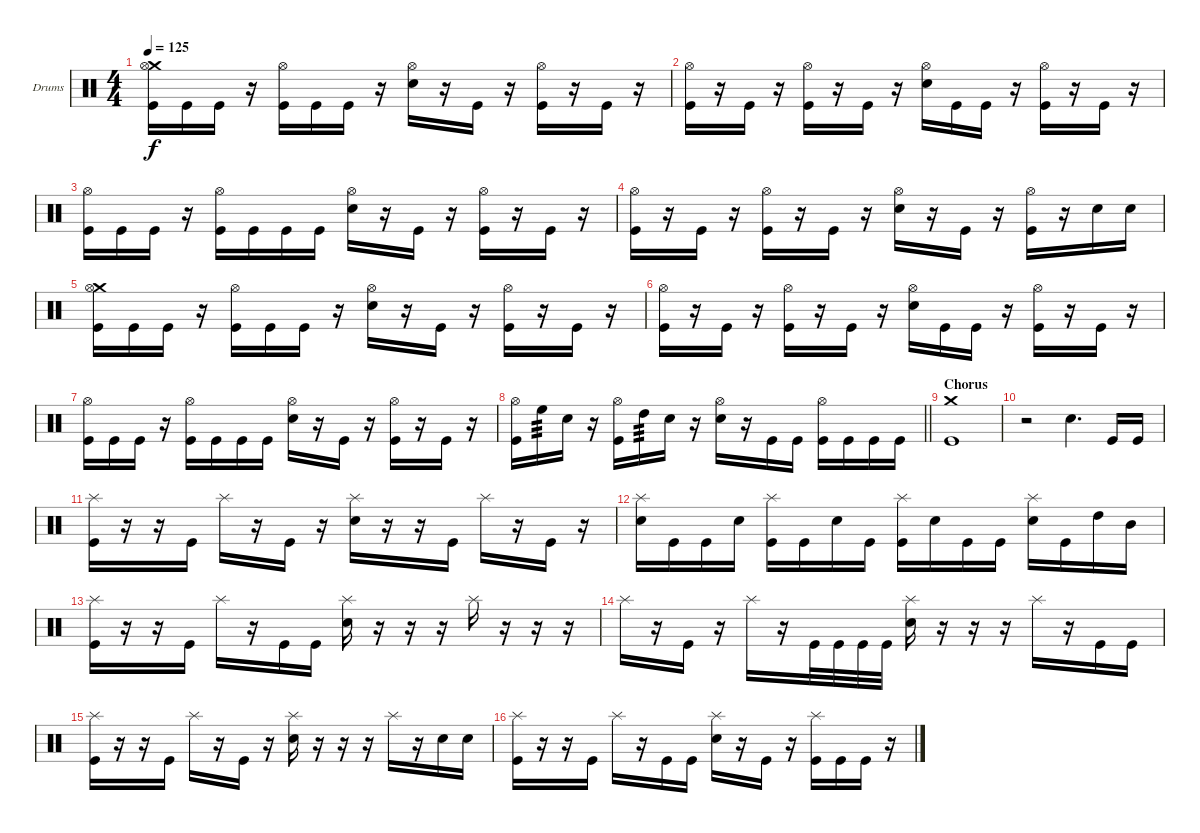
\bracketExtendMode groupsimilarinstruments
\firstSystemTrackNameOrientation horizontal
\otherSystemsTrackNameOrientation horizontal
\track ("Drumkit" "Drums") {instrument percussion}
\staff {score}
\articulation defaults
\ts (4 4)
\tempo 125
\clef neutral
\ks c
("Crash medium (hit)" "Kick (hit)" "Hi-Hat (open)").16{dy f} "Kick (hit)".16 "Kick (hit)".16 r.16 ("Kick (hit)" "Hi-Hat (open)").16 "Kick (hit)".16 "Kick (hit)".16 r.16 ("Snare (hit) 2" "Hi-Hat (open)").16 r.16 "Kick (hit)".16 r.16 ("Kick (hit)" "Hi-Hat (open)").16 r.16 "Kick (hit)".16 r.16 |
("Kick (hit)" "Hi-Hat (open)").16 r.16 "Kick (hit)".16 r.16 ("Kick (hit)" "Hi-Hat (open)").16 r.16 "Kick (hit)".16 r.16 ("Snare (hit) 2" "Hi-Hat (open)").16 "Kick (hit)".16 "Kick (hit)".16 r.16 ("Kick (hit)" "Hi-Hat (open)").16 r.16 "Kick (hit)".16 r.16 |
("Kick (hit)" "Hi-Hat (open)").16 "Kick (hit)".16 "Kick (hit)".16 r.16 ("Kick (hit)" "Hi-Hat (open)").16 "Kick (hit)".16 "Kick (hit)".16 "Kick (hit)".16 ("Snare (hit) 2" "Hi-Hat (open)").16 r.16 "Kick (hit)".16 r.16 ("Kick (hit)" "Hi-Hat (open)").16 r.16 "Kick (hit)".16 r.16 |
("Kick (hit)" "Hi-Hat (open)").16 r.16 "Kick (hit)".16 r.16 ("Kick (hit)" "Hi-Hat (open)").16 r.16 "Kick (hit)".16 r.16 ("Snare (hit) 2" "Hi-Hat (open)").16 r.16 "Kick (hit)".16 r.16 ("Kick (hit)" "Hi-Hat (open)").16 r.16 "Snare (hit) 2".16 "Snare (hit) 2".16 |
("Crash medium (hit)" "Kick (hit)" "Hi-Hat (open)").16 "Kick (hit)".16 "Kick (hit)".16 r.16 ("Kick (hit)" "Hi-Hat (open)").16 "Kick (hit)".16 "Kick (hit)".16 r.16 ("Snare (hit) 2" "Hi-Hat (open)").16 r.16 "Kick (hit)".16 r.16 ("Kick (hit)" "Hi-Hat (open)").16 r.16 "Kick (hit)".16 r.16 |
("Kick (hit)" "Hi-Hat (open)").16 r.16 "Kick (hit)".16 r.16 ("Kick (hit)" "Hi-Hat (open)").16 r.16 "Kick (hit)".16 r.16 ("Snare (hit) 2" "Hi-Hat (open)").16 "Kick (hit)".16 "Kick (hit)".16 r.16 ("Kick (hit)" "Hi-Hat (open)").16 r.16 "Kick (hit)".16 r.16 |
("Kick (hit)" "Hi-Hat (open)").16 "Kick (hit)".16 "Kick (hit)".16 r.16 ("Kick (hit)" "Hi-Hat (open)").16 "Kick (hit)".16 "Kick (hit)".16 "Kick (hit)".16 ("Snare (hit) 2" "Hi-Hat (open)").16 r.16 "Kick (hit)".16 r.16 ("Kick (hit)" "Hi-Hat (open)").16 r.16 "Kick (hit)".16 r.16 |
\barLineRight lightlight
("Kick (hit)" "Hi-Hat (open)").16 "High Floor Tom (hit)".16{tp 3} "Snare (hit) 2".16 r.16 ("Kick (hit)" "Hi-Hat (open)").16 "High Tom (hit)".16{tp 3} "Snare (hit) 2".16 r.16 ("Snare (hit) 2" "Hi-Hat (open)").16 r.16 "Kick (hit)".16 "Kick (hit)".16 ("Kick (hit)" "Hi-Hat (open)").16 "Kick (hit)".16 "Kick (hit)".16 "Kick (hit)".16 |
\section ("" "Chorus")
("Crash medium (hit)" "Kick (hit)").1 |
r.2 "Snare (hit) 2".4{d} "Kick (hit)".16 "Kick (hit)".16 |
("Kick (hit)" "Splash (hit)").16 r.16 r.16 "Kick (hit)".16 "Splash (hit)".16 r.16 "Kick (hit)".16 r.16 ("Snare (hit) 2" "Splash (hit)").16 r.16 r.16 "Kick (hit)".16 "Splash (hit)".16 r.16 "Kick (hit)".16 r.16 |
("Snare (hit) 2" "Splash (hit)").16 "Kick (hit)".16 "Kick (hit)".16 "Snare (hit) 2".16 ("Kick (hit)" "Splash (hit)").16 "Kick (hit)".16 "Snare (hit) 2".16 "Kick (hit)".16 ("Kick (hit)" "Splash (hit)").16 "Snare (hit) 2".16 "Kick (hit)".16 "Kick (hit)".16 ("Snare (hit) 2" "Splash (hit)").16 "Kick (hit)".16 "High Tom (hit)".16 "Mid Tom (hit)".16 |
("Kick (hit)" "Splash (hit)").16 r.16 r.16 "Kick (hit)".16 "Splash (hit)".16 r.16 "Kick (hit)".16 "Kick (hit)".16 ("Snare (hit) 2" "Splash (hit)").16 r.16 r.16 r.16 "Splash (hit)".16 r.16 r.16 r.16 |
"Splash (hit)".16 r.16 "Kick (hit)".16 r.16 "Splash (hit)".16 r.16 "Kick (hit)".32 "Kick (hit)".32 "Kick (hit)".32 "Kick (hit)".32 ("Snare (hit) 2" "Splash (hit)").16 r.16 r.16 r.16 "Splash (hit)".16 r.16 "Kick (hit)".16 "Kick (hit)".16 |
("Kick (hit)" "Splash (hit)").16 r.16 r.16 "Kick (hit)".16 "Splash (hit)".16 r.16 "Kick (hit)".16 r.16 ("Snare (hit) 2" "Splash (hit)").16 r.16 r.16 r.16 "Splash (hit)".16 r.16 "Snare (hit) 2".16 "Snare (hit) 2".16 |
("Kick (hit)" "Splash (hit)").16 r.16 r.16 "Kick (hit)".16 "Splash (hit)".16 r.16 "Kick (hit)".16 "Kick (hit)".16 ("Snare (hit) 2" "Splash (hit)").16 r.16 "Kick (hit)".16 r.16 ("Kick (hit)" "Splash (hit)").16 "Kick (hit)".16 "Kick (hit)".16 r.16
